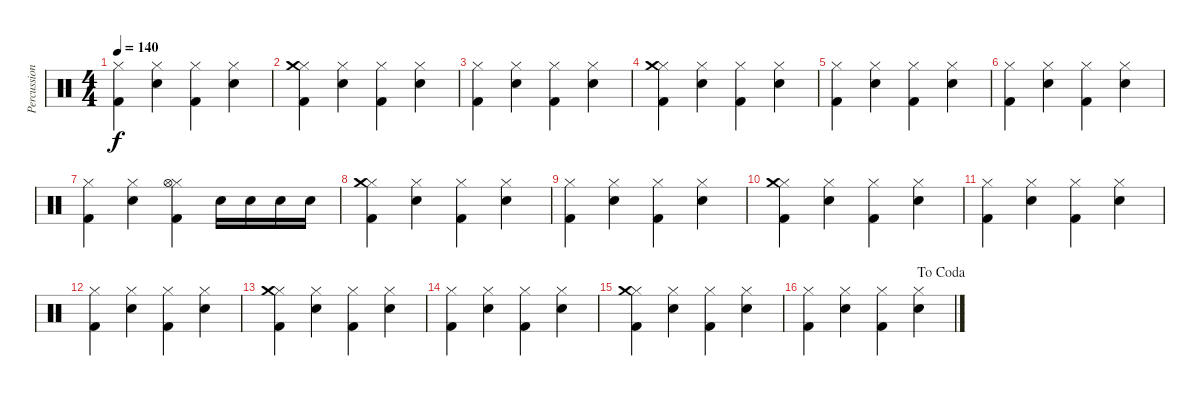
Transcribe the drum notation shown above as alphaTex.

\track ("Percussion" "Percussion") {instrument percussion}
\staff {score}
\articulation defaults
\ts (4 4)
\tempo 140
\clef neutral
\ks c
("Hi-Hat (closed)" "Kick (hit) 2").4{dy f} ("Hi-Hat (closed)" "Electric Snare (hit)").4 ("Hi-Hat (closed)" "Kick (hit) 2").4 ("Hi-Hat (closed)" "Electric Snare (hit)").4 |
("Hi-Hat (closed)" "Kick (hit) 2" "Crash medium (hit)").4 ("Hi-Hat (closed)" "Electric Snare (hit)").4 ("Hi-Hat (closed)" "Kick (hit) 2").4 ("Hi-Hat (closed)" "Electric Snare (hit)").4 |
("Hi-Hat (closed)" "Kick (hit) 2").4 ("Hi-Hat (closed)" "Electric Snare (hit)").4 ("Hi-Hat (closed)" "Kick (hit) 2").4 ("Hi-Hat (closed)" "Electric Snare (hit)").4 |
("Hi-Hat (closed)" "Kick (hit) 2" "Crash medium (hit)").4 ("Hi-Hat (closed)" "Electric Snare (hit)").4 ("Hi-Hat (closed)" "Kick (hit) 2").4 ("Hi-Hat (closed)" "Electric Snare (hit)").4 |
("Hi-Hat (closed)" "Kick (hit) 2").4 ("Hi-Hat (closed)" "Electric Snare (hit)").4 ("Hi-Hat (closed)" "Kick (hit) 2").4 ("Hi-Hat (closed)" "Electric Snare (hit)").4 |
("Hi-Hat (closed)" "Kick (hit) 2").4 ("Hi-Hat (closed)" "Electric Snare (hit)").4 ("Hi-Hat (closed)" "Kick (hit) 2").4 ("Hi-Hat (closed)" "Electric Snare (hit)").4 |
("Hi-Hat (closed)" "Kick (hit) 2").4 ("Hi-Hat (closed)" "Electric Snare (hit)").4 ("Hi-Hat (closed)" "Kick (hit) 2" "Hi-Hat (open)").4 "Electric Snare (hit)".16 "Electric Snare (hit)".16 "Electric Snare (hit)".16 "Electric Snare (hit)".16 |
("Hi-Hat (closed)" "Kick (hit) 2" "Crash medium (hit)").4 ("Hi-Hat (closed)" "Electric Snare (hit)").4 ("Hi-Hat (closed)" "Kick (hit) 2").4 ("Hi-Hat (closed)" "Electric Snare (hit)").4 |
("Hi-Hat (closed)" "Kick (hit) 2").4 ("Hi-Hat (closed)" "Electric Snare (hit)").4 ("Hi-Hat (closed)" "Kick (hit) 2").4 ("Hi-Hat (closed)" "Electric Snare (hit)").4 |
("Hi-Hat (closed)" "Kick (hit) 2" "Crash medium (hit)").4 ("Hi-Hat (closed)" "Electric Snare (hit)").4 ("Hi-Hat (closed)" "Kick (hit) 2").4 ("Hi-Hat (closed)" "Electric Snare (hit)").4 |
("Hi-Hat (closed)" "Kick (hit) 2").4 ("Hi-Hat (closed)" "Electric Snare (hit)").4 ("Hi-Hat (closed)" "Kick (hit) 2").4 ("Hi-Hat (closed)" "Electric Snare (hit)").4 |
("Hi-Hat (closed)" "Kick (hit) 2").4 ("Hi-Hat (closed)" "Electric Snare (hit)").4 ("Hi-Hat (closed)" "Kick (hit) 2").4 ("Hi-Hat (closed)" "Electric Snare (hit)").4 |
("Hi-Hat (closed)" "Kick (hit) 2" "Crash medium (hit)").4 ("Hi-Hat (closed)" "Electric Snare (hit)").4 ("Hi-Hat (closed)" "Kick (hit) 2").4 ("Hi-Hat (closed)" "Electric Snare (hit)").4 |
("Hi-Hat (closed)" "Kick (hit) 2").4 ("Hi-Hat (closed)" "Electric Snare (hit)").4 ("Hi-Hat (closed)" "Kick (hit) 2").4 ("Hi-Hat (closed)" "Electric Snare (hit)").4 |
("Hi-Hat (closed)" "Kick (hit) 2" "Crash medium (hit)").4 ("Hi-Hat (closed)" "Electric Snare (hit)").4 ("Hi-Hat (closed)" "Kick (hit) 2").4 ("Hi-Hat (closed)" "Electric Snare (hit)").4 |
\jump dacoda
("Hi-Hat (closed)" "Kick (hit) 2").4 ("Hi-Hat (closed)" "Electric Snare (hit)").4 ("Hi-Hat (closed)" "Kick (hit) 2").4 ("Hi-Hat (closed)" "Electric Snare (hit)").4
